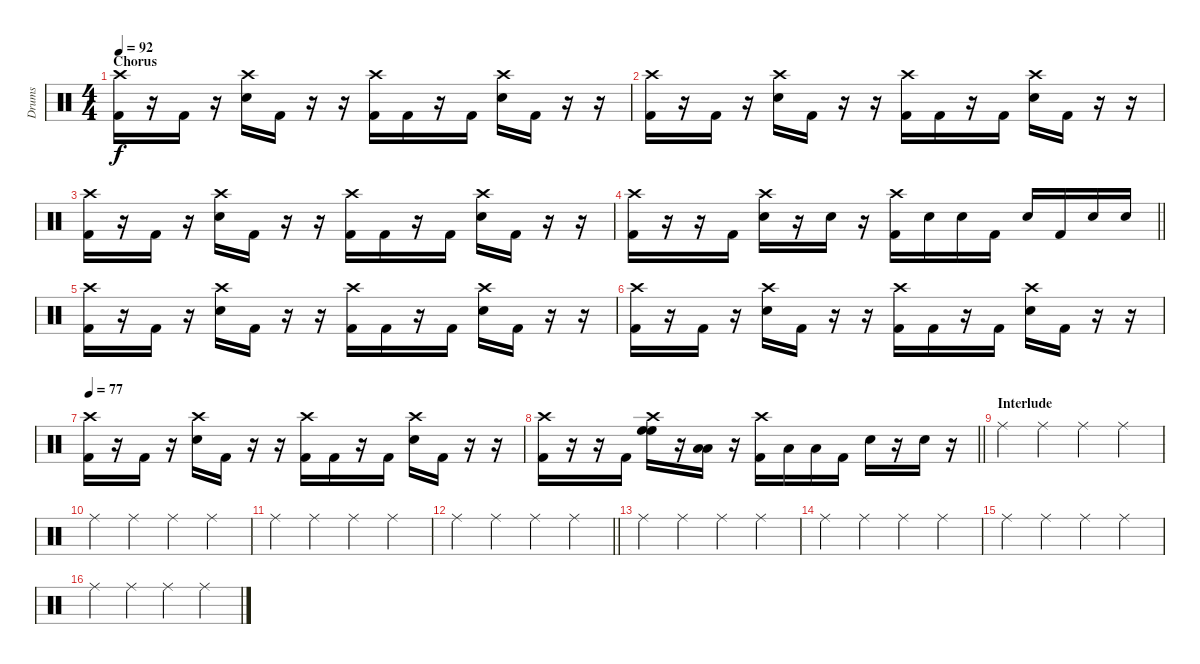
\track ("Drums" "Drums") {instrument percussion}
\staff {score}
\articulation defaults
\ts (4 4)
\section ("" "Chorus")
\tempo 92
\clef neutral
\ks c
("Crash high (hit)" "Kick (hit) 2").16{dy f} r.16 "Kick (hit) 2".16 r.16 ("Crash high (hit)" "Snare (hit) 2").16 "Kick (hit) 2".16 r.16 r.16 ("Crash high (hit)" "Kick (hit) 2").16 "Kick (hit) 2".16 r.16 "Kick (hit) 2".16 ("Crash high (hit)" "Snare (hit) 2").16 "Kick (hit) 2".16 r.16 r.16 |
("Crash high (hit)" "Kick (hit) 2").16 r.16 "Kick (hit) 2".16 r.16 ("Crash high (hit)" "Snare (hit) 2").16 "Kick (hit) 2".16 r.16 r.16 ("Crash high (hit)" "Kick (hit) 2").16 "Kick (hit) 2".16 r.16 "Kick (hit) 2".16 ("Crash high (hit)" "Snare (hit) 2").16 "Kick (hit) 2".16 r.16 r.16 |
("Crash high (hit)" "Kick (hit) 2").16 r.16 "Kick (hit) 2".16 r.16 ("Crash high (hit)" "Snare (hit) 2").16 "Kick (hit) 2".16 r.16 r.16 ("Crash high (hit)" "Kick (hit) 2").16 "Kick (hit) 2".16 r.16 "Kick (hit) 2".16 ("Crash high (hit)" "Snare (hit) 2").16 "Kick (hit) 2".16 r.16 r.16 |
\barLineRight lightlight
("Crash high (hit)" "Kick (hit) 2").16 r.16 r.16 "Kick (hit) 2".16 ("Crash high (hit)" "Snare (hit) 2").16 r.16 "Snare (hit) 2".16 r.16 ("Crash high (hit)" "Kick (hit) 2").16 "Snare (hit) 2".16 "Snare (hit) 2".16 "Kick (hit) 2".16 "Snare (hit) 2".16 "Kick (hit) 2".16 "Snare (hit) 2".16 "Snare (hit) 2".16 |
("Crash high (hit)" "Kick (hit) 2").16 r.16 "Kick (hit) 2".16 r.16 ("Crash high (hit)" "Snare (hit) 2").16 "Kick (hit) 2".16 r.16 r.16 ("Crash high (hit)" "Kick (hit) 2").16 "Kick (hit) 2".16 r.16 "Kick (hit) 2".16 ("Crash high (hit)" "Snare (hit) 2").16 "Kick (hit) 2".16 r.16 r.16 |
("Crash high (hit)" "Kick (hit) 2").16 r.16 "Kick (hit) 2".16 r.16 ("Crash high (hit)" "Snare (hit) 2").16 "Kick (hit) 2".16 r.16 r.16 ("Crash high (hit)" "Kick (hit) 2").16 "Kick (hit) 2".16 r.16 "Kick (hit) 2".16 ("Crash high (hit)" "Snare (hit) 2").16 "Kick (hit) 2".16 r.16 r.16 |
\tempo 77
("Crash high (hit)" "Kick (hit) 2").16 r.16 "Kick (hit) 2".16 r.16 ("Crash high (hit)" "Snare (hit) 2").16 "Kick (hit) 2".16 r.16 r.16 ("Crash high (hit)" "Kick (hit) 2").16 "Kick (hit) 2".16 r.16 "Kick (hit) 2".16 ("Crash high (hit)" "Snare (hit) 2").16 "Kick (hit) 2".16 r.16 r.16 |
\barLineRight lightlight
("Crash high (hit)" "Kick (hit) 2").16{volume 9} r.16 r.16 "Kick (hit) 2".16 ("Crash high (hit)" "High Floor Tom (hit)" "High Floor Tom (hit)").16 r.16 ("Low Tom (hit)" "Low Tom (hit)").16 r.16 ("Crash high (hit)" "Kick (hit) 2").16 "Low Tom (hit)".16 "Low Floor Tom (hit)".16 "Kick (hit) 2".16 "Snare (hit) 2".16 r.16 "Snare (hit) 2".16 r.16 |
\section ("" "Interlude")
"Ride (middle)".4 "Ride (middle)".4 "Ride (middle)".4 "Ride (middle)".4 |
"Ride (middle)".4 "Ride (middle)".4 "Ride (middle)".4 "Ride (middle)".4 |
"Ride (middle)".4 "Ride (middle)".4 "Ride (middle)".4 "Ride (middle)".4 |
\barLineRight lightlight "Ride (middle)".4 "Ride (middle)".4 "Ride (middle)".4 "Ride (middle)".4
|
"Ride (middle)".4 "Ride (middle)".4 "Ride (middle)".4 "Ride (middle)".4 |
"Ride (middle)".4 "Ride (middle)".4 "Ride (middle)".4 "Ride (middle)".4 |
"Ride (middle)".4 "Ride (middle)".4 "Ride (middle)".4 "Ride (middle)".4 |
"Ride (middle)".4 "Ride (middle)".4 "Ride (middle)".4 "Ride (middle)".4
